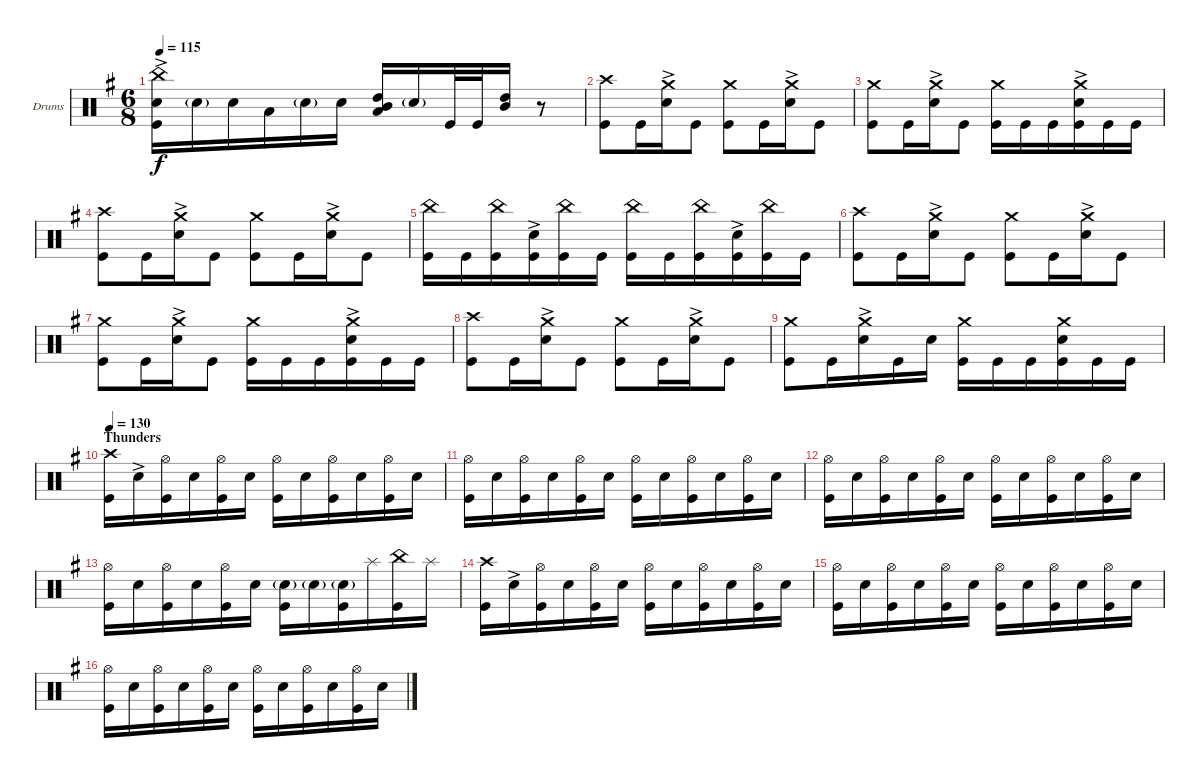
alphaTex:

\bracketExtendMode groupsimilarinstruments
\firstSystemTrackNameOrientation horizontal
\otherSystemsTrackNameOrientation horizontal
\track ("Drumkit" "Drums") {instrument percussion}
\staff {score}
\articulation defaults
\ts (6 8)
\tempo 115
\clef neutral
\ks eminor
("Kick (hit)" "Snare (hit) 2"{ac} "China (hit)").16{dy f} "Snare (hit) 2"{g}.16 "Snare (hit) 2".16 "Low Tom (hit)".16 "Snare (hit) 2"{g}.16 "Snare (hit) 2".16 ("High Tom (hit)" "Mid Tom (hit)" "Low Tom (hit)").16 "Snare (hit) 2"{g}.16 "Kick (hit)".32 "Kick (hit)".32 ("High Tom (hit)" "Mid Tom (hit)").16 r.8 |
("Kick (hit)" "Crash high (hit)").8 "Kick (hit)".16 ("Snare (hit) 2"{ac} "Crash medium (hit)").16 "Kick (hit)".8 ("Kick (hit)" "Crash medium (hit)").8 "Kick (hit)".16 ("Snare (hit) 2"{ac} "Crash medium (hit)").16 "Kick (hit)".8 |
("Kick (hit)" "Crash medium (hit)").8 "Kick (hit)".16 ("Snare (hit) 2"{ac} "Crash medium (hit)").16 "Kick (hit)".8 ("Kick (hit)" "Crash medium (hit)").16 "Kick (hit)".16 "Kick (hit)".16 ("Kick (hit)" "Snare (hit) 2"{ac} "Crash medium (hit)").16 "Kick (hit)".16 "Kick (hit)".16 |
("Kick (hit)" "Crash high (hit)").8 "Kick (hit)".16 ("Snare (hit) 2"{ac} "Crash medium (hit)").16 "Kick (hit)".8 ("Kick (hit)" "Crash medium (hit)").8 "Kick (hit)".16 ("Snare (hit) 2"{ac} "Crash medium (hit)").16 "Kick (hit)".8 |
("Kick (hit)" "China (hit)").16 "Kick (hit)".16 ("Kick (hit)" "China (hit)").16 ("Kick (hit)" "Snare (hit) 2"{ac}).16 ("Kick (hit)" "China (hit)").16 "Kick (hit)".16 ("Kick (hit)" "China (hit)").16 "Kick (hit)".16 ("Kick (hit)" "China (hit)").16 ("Kick (hit)" "Snare (hit) 2"{ac}).16 ("Kick (hit)" "China (hit)").16 "Kick (hit)".16 |
("Kick (hit)" "Crash high (hit)").8 "Kick (hit)".16 ("Snare (hit) 2"{ac} "Crash medium (hit)").16 "Kick (hit)".8 ("Kick (hit)" "Crash medium (hit)").8 "Kick (hit)".16 ("Snare (hit) 2"{ac} "Crash medium (hit)").16 "Kick (hit)".8 |
("Kick (hit)" "Crash medium (hit)").8 "Kick (hit)".16 ("Snare (hit) 2"{ac} "Crash medium (hit)").16 "Kick (hit)".8 ("Kick (hit)" "Crash medium (hit)").16 "Kick (hit)".16 "Kick (hit)".16 ("Kick (hit)" "Snare (hit) 2"{ac} "Crash medium (hit)").16 "Kick (hit)".16 "Kick (hit)".16 |
("Kick (hit)" "Crash high (hit)").8 "Kick (hit)".16 ("Snare (hit) 2"{ac} "Crash medium (hit)").16 "Kick (hit)".8 ("Kick (hit)" "Crash medium (hit)").8 "Kick (hit)".16 ("Snare (hit) 2"{ac} "Crash medium (hit)").16 "Kick (hit)".8 |
("Kick (hit)" "Crash medium (hit)").8 "Kick (hit)".16 ("Snare (hit) 2"{ac} "Crash medium (hit)").16 "Kick (hit)".16 "Snare (hit) 2".16 ("Kick (hit)" "Crash medium (hit)").16 "Kick (hit)".16 "Kick (hit)".16 ("Kick (hit)" "Snare (hit) 2" "Crash medium (hit)").16 "Kick (hit)".16 "Kick (hit)".16 |
\section ("" "Thunders")
\tempo 130
("Kick (hit)" "Crash high (hit)").16 "Snare (hit) 2"{ac}.16 ("Kick (hit)" "Hi-Hat (open)").16 "Snare (hit) 2".16 ("Kick (hit)" "Hi-Hat (open)").16 "Snare (hit) 2".16 ("Kick (hit)" "Hi-Hat (open)").16 "Snare (hit) 2".16 ("Kick (hit)" "Hi-Hat (open)").16 "Snare (hit) 2".16 ("Kick (hit)" "Hi-Hat (open)").16 "Snare (hit) 2".16 |
("Kick (hit)" "Hi-Hat (open)").16 "Snare (hit) 2".16 ("Kick (hit)" "Hi-Hat (open)").16 "Snare (hit) 2".16 ("Kick (hit)" "Hi-Hat (open)").16 "Snare (hit) 2".16 ("Kick (hit)" "Hi-Hat (open)").16 "Snare (hit) 2".16 ("Kick (hit)" "Hi-Hat (open)").16 "Snare (hit) 2".16 ("Kick (hit)" "Hi-Hat (open)").16 "Snare (hit) 2".16 |
("Kick (hit)" "Hi-Hat (open)").16 "Snare (hit) 2".16 ("Kick (hit)" "Hi-Hat (open)").16 "Snare (hit) 2".16 ("Kick (hit)" "Hi-Hat (open)").16 "Snare (hit) 2".16 ("Kick (hit)" "Hi-Hat (open)").16 "Snare (hit) 2".16 ("Kick (hit)" "Hi-Hat (open)").16 "Snare (hit) 2".16 ("Kick (hit)" "Hi-Hat (open)").16 "Snare (hit) 2".16 |
("Kick (hit)" "Hi-Hat (open)").16 "Snare (hit) 2".16 ("Kick (hit)" "Hi-Hat (open)").16 "Snare (hit) 2".16 ("Kick (hit)" "Hi-Hat (open)").16 "Snare (hit) 2".16 ("Snare (hit) 2"{g} "Kick (hit)").16 "Snare (hit) 2"{g}.16 ("Snare (hit) 2"{g} "Kick (hit)").16 "Splash (hit)".16 ("China (hit)" "Kick (hit)").16 "Splash (hit)".16 |
("Kick (hit)" "Crash high (hit)").16 "Snare (hit) 2"{ac}.16 ("Kick (hit)" "Hi-Hat (open)").16 "Snare (hit) 2".16 ("Kick (hit)" "Hi-Hat (open)").16 "Snare (hit) 2".16 ("Kick (hit)" "Hi-Hat (open)").16 "Snare (hit) 2".16 ("Kick (hit)" "Hi-Hat (open)").16 "Snare (hit) 2".16 ("Kick (hit)" "Hi-Hat (open)").16 "Snare (hit) 2".16 |
("Kick (hit)" "Hi-Hat (open)").16 "Snare (hit) 2".16 ("Kick (hit)" "Hi-Hat (open)").16 "Snare (hit) 2".16 ("Kick (hit)" "Hi-Hat (open)").16 "Snare (hit) 2".16 ("Kick (hit)" "Hi-Hat (open)").16 "Snare (hit) 2".16 ("Kick (hit)" "Hi-Hat (open)").16 "Snare (hit) 2".16 ("Kick (hit)" "Hi-Hat (open)").16 "Snare (hit) 2".16 |
("Kick (hit)" "Hi-Hat (open)").16 "Snare (hit) 2".16 ("Kick (hit)" "Hi-Hat (open)").16 "Snare (hit) 2".16 ("Kick (hit)" "Hi-Hat (open)").16 "Snare (hit) 2".16 ("Kick (hit)" "Hi-Hat (open)").16 "Snare (hit) 2".16 ("Kick (hit)" "Hi-Hat (open)").16 "Snare (hit) 2".16 ("Kick (hit)" "Hi-Hat (open)").16 "Snare (hit) 2".16
